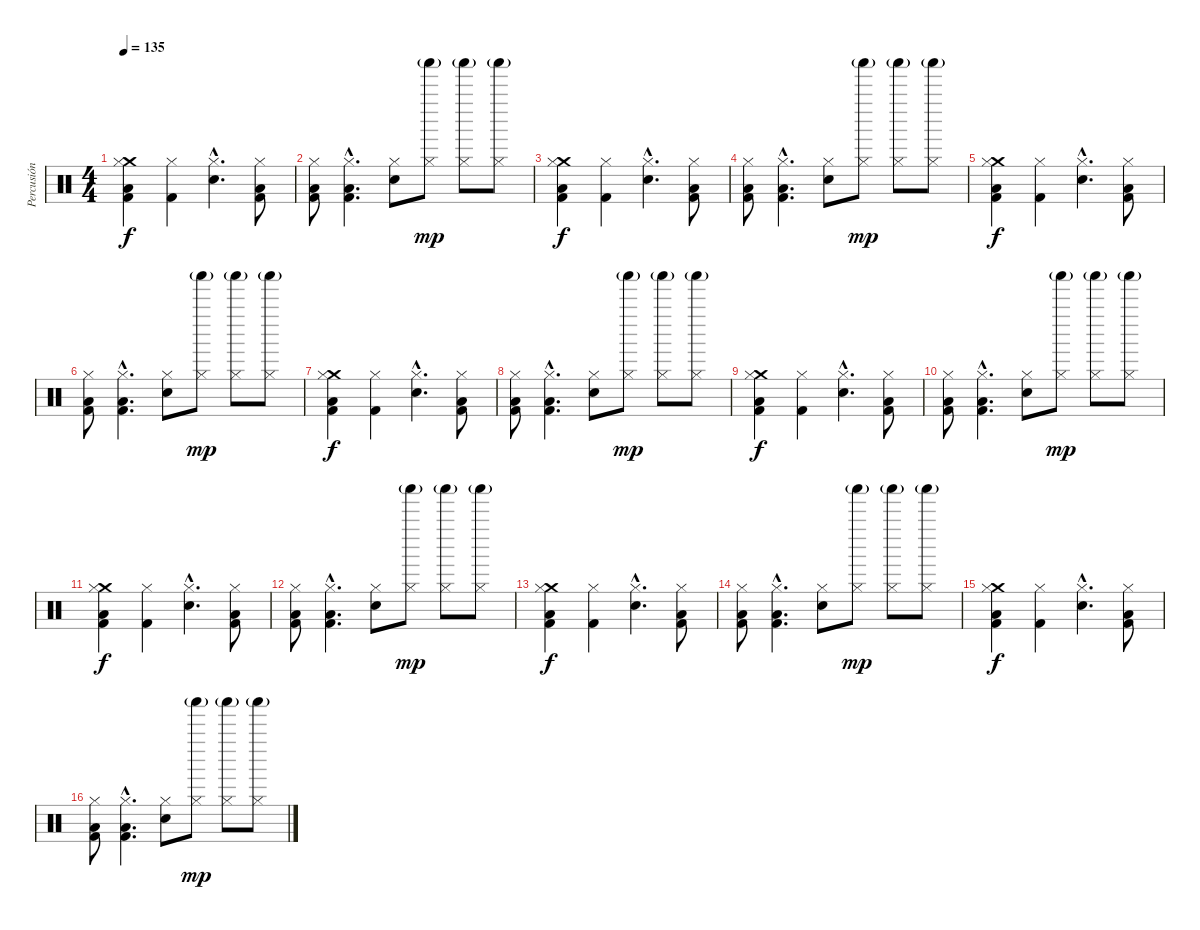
\track ("Percusión" "Percusión") {instrument percussion}
\staff {score}
\articulation defaults
\ts (4 4)
\tempo 135
\clef neutral
\ks c
("Crash medium (hit)" "Kick (hit) 2" "Low Floor Tom (hit)" "Hi-Hat (closed)").4{dy f} ("Kick (hit) 2" "Hi-Hat (closed)").4 ("Hi-Hat (closed)"{hac} "Snare (hit) 2"{hac}).4{d} ("Hi-Hat (closed)" "Kick (hit) 2" "Low Floor Tom (hit)").8 |
("Hi-Hat (closed)" "Kick (hit) 2" "Low Floor Tom (hit)").8 ("Hi-Hat (closed)"{hac} "Kick (hit) 2"{hac} "Low Floor Tom (hit)"{hac}).4{d} ("Hi-Hat (closed)" "Snare (hit) 2").8 ("Hi-Hat (closed)" "Shaker (hit)"{g}).8{dy mp} ("Hi-Hat (closed)" "Shaker (hit)"{g}).8 ("Hi-Hat (closed)" "Shaker (hit)"{g}).8 |
("Crash medium (hit)" "Kick (hit) 2" "Low Floor Tom (hit)" "Hi-Hat (closed)").4{dy f} ("Kick (hit) 2" "Hi-Hat (closed)").4 ("Hi-Hat (closed)"{hac} "Snare (hit) 2"{hac}).4{d} ("Hi-Hat (closed)" "Kick (hit) 2" "Low Floor Tom (hit)").8 |
("Hi-Hat (closed)" "Kick (hit) 2" "Low Floor Tom (hit)").8 ("Hi-Hat (closed)"{hac} "Kick (hit) 2"{hac} "Low Floor Tom (hit)"{hac}).4{d} ("Hi-Hat (closed)" "Snare (hit) 2").8 ("Hi-Hat (closed)" "Shaker (hit)"{g}).8{dy mp} ("Hi-Hat (closed)" "Shaker (hit)"{g}).8 ("Hi-Hat (closed)" "Shaker (hit)"{g}).8 |
("Crash medium (hit)" "Kick (hit) 2" "Low Floor Tom (hit)" "Hi-Hat (closed)").4{dy f} ("Kick (hit) 2" "Hi-Hat (closed)").4 ("Hi-Hat (closed)"{hac} "Snare (hit) 2"{hac}).4{d} ("Hi-Hat (closed)" "Kick (hit) 2" "Low Floor Tom (hit)").8 |
("Hi-Hat (closed)" "Kick (hit) 2" "Low Floor Tom (hit)").8 ("Hi-Hat (closed)"{hac} "Kick (hit) 2"{hac} "Low Floor Tom (hit)"{hac}).4{d} ("Hi-Hat (closed)" "Snare (hit) 2").8 ("Hi-Hat (closed)" "Shaker (hit)"{g}).8{dy mp} ("Hi-Hat (closed)" "Shaker (hit)"{g}).8 ("Hi-Hat (closed)" "Shaker (hit)"{g}).8 |
("Crash medium (hit)" "Kick (hit) 2" "Low Floor Tom (hit)" "Hi-Hat (closed)").4{dy f} ("Kick (hit) 2" "Hi-Hat (closed)").4 ("Hi-Hat (closed)"{hac} "Snare (hit) 2"{hac}).4{d} ("Hi-Hat (closed)" "Kick (hit) 2" "Low Floor Tom (hit)").8 |
("Hi-Hat (closed)" "Kick (hit) 2" "Low Floor Tom (hit)").8 ("Hi-Hat (closed)"{hac} "Kick (hit) 2"{hac} "Low Floor Tom (hit)"{hac}).4{d} ("Hi-Hat (closed)" "Snare (hit) 2").8 ("Hi-Hat (closed)" "Shaker (hit)"{g}).8{dy mp} ("Hi-Hat (closed)" "Shaker (hit)"{g}).8 ("Hi-Hat (closed)" "Shaker (hit)"{g}).8 |
("Crash medium (hit)" "Kick (hit) 2" "Low Floor Tom (hit)" "Hi-Hat (closed)").4{dy f} ("Kick (hit) 2" "Hi-Hat (closed)").4 ("Hi-Hat (closed)"{hac} "Snare (hit) 2"{hac}).4{d} ("Hi-Hat (closed)" "Kick (hit) 2" "Low Floor Tom (hit)").8 |
("Hi-Hat (closed)" "Kick (hit) 2" "Low Floor Tom (hit)").8 ("Hi-Hat (closed)"{hac} "Kick (hit) 2"{hac} "Low Floor Tom (hit)"{hac}).4{d} ("Hi-Hat (closed)" "Snare (hit) 2").8 ("Hi-Hat (closed)" "Shaker (hit)"{g}).8{dy mp} ("Hi-Hat (closed)" "Shaker (hit)"{g}).8 ("Hi-Hat (closed)" "Shaker (hit)"{g}).8 |
("Crash medium (hit)" "Kick (hit) 2" "Low Floor Tom (hit)" "Hi-Hat (closed)").4{dy f} ("Kick (hit) 2" "Hi-Hat (closed)").4 ("Hi-Hat (closed)"{hac} "Snare (hit) 2"{hac}).4{d} ("Hi-Hat (closed)" "Kick (hit) 2" "Low Floor Tom (hit)").8 |
("Hi-Hat (closed)" "Kick (hit) 2" "Low Floor Tom (hit)").8 ("Hi-Hat (closed)"{hac} "Kick (hit) 2"{hac} "Low Floor Tom (hit)"{hac}).4{d} ("Hi-Hat (closed)" "Snare (hit) 2").8 ("Hi-Hat (closed)" "Shaker (hit)"{g}).8{dy mp} ("Hi-Hat (closed)" "Shaker (hit)"{g}).8 ("Hi-Hat (closed)" "Shaker (hit)"{g}).8 |
("Crash medium (hit)" "Kick (hit) 2" "Low Floor Tom (hit)" "Hi-Hat (closed)").4{dy f} ("Kick (hit) 2" "Hi-Hat (closed)").4 ("Hi-Hat (closed)"{hac} "Snare (hit) 2"{hac}).4{d} ("Hi-Hat (closed)" "Kick (hit) 2" "Low Floor Tom (hit)").8 |
("Hi-Hat (closed)" "Kick (hit) 2" "Low Floor Tom (hit)").8 ("Hi-Hat (closed)"{hac} "Kick (hit) 2"{hac} "Low Floor Tom (hit)"{hac}).4{d} ("Hi-Hat (closed)" "Snare (hit) 2").8 ("Hi-Hat (closed)" "Shaker (hit)"{g}).8{dy mp} ("Hi-Hat (closed)" "Shaker (hit)"{g}).8 ("Hi-Hat (closed)" "Shaker (hit)"{g}).8 |
("Crash medium (hit)" "Kick (hit) 2" "Low Floor Tom (hit)" "Hi-Hat (closed)").4{dy f} ("Kick (hit) 2" "Hi-Hat (closed)").4 ("Hi-Hat (closed)"{hac} "Snare (hit) 2"{hac}).4{d} ("Hi-Hat (closed)" "Kick (hit) 2" "Low Floor Tom (hit)").8 |
("Hi-Hat (closed)" "Kick (hit) 2" "Low Floor Tom (hit)").8 ("Hi-Hat (closed)"{hac} "Kick (hit) 2"{hac} "Low Floor Tom (hit)"{hac}).4{d} ("Hi-Hat (closed)" "Snare (hit) 2").8 ("Hi-Hat (closed)" "Shaker (hit)"{g}).8{dy mp} ("Hi-Hat (closed)" "Shaker (hit)"{g}).8 ("Hi-Hat (closed)" "Shaker (hit)"{g}).8
